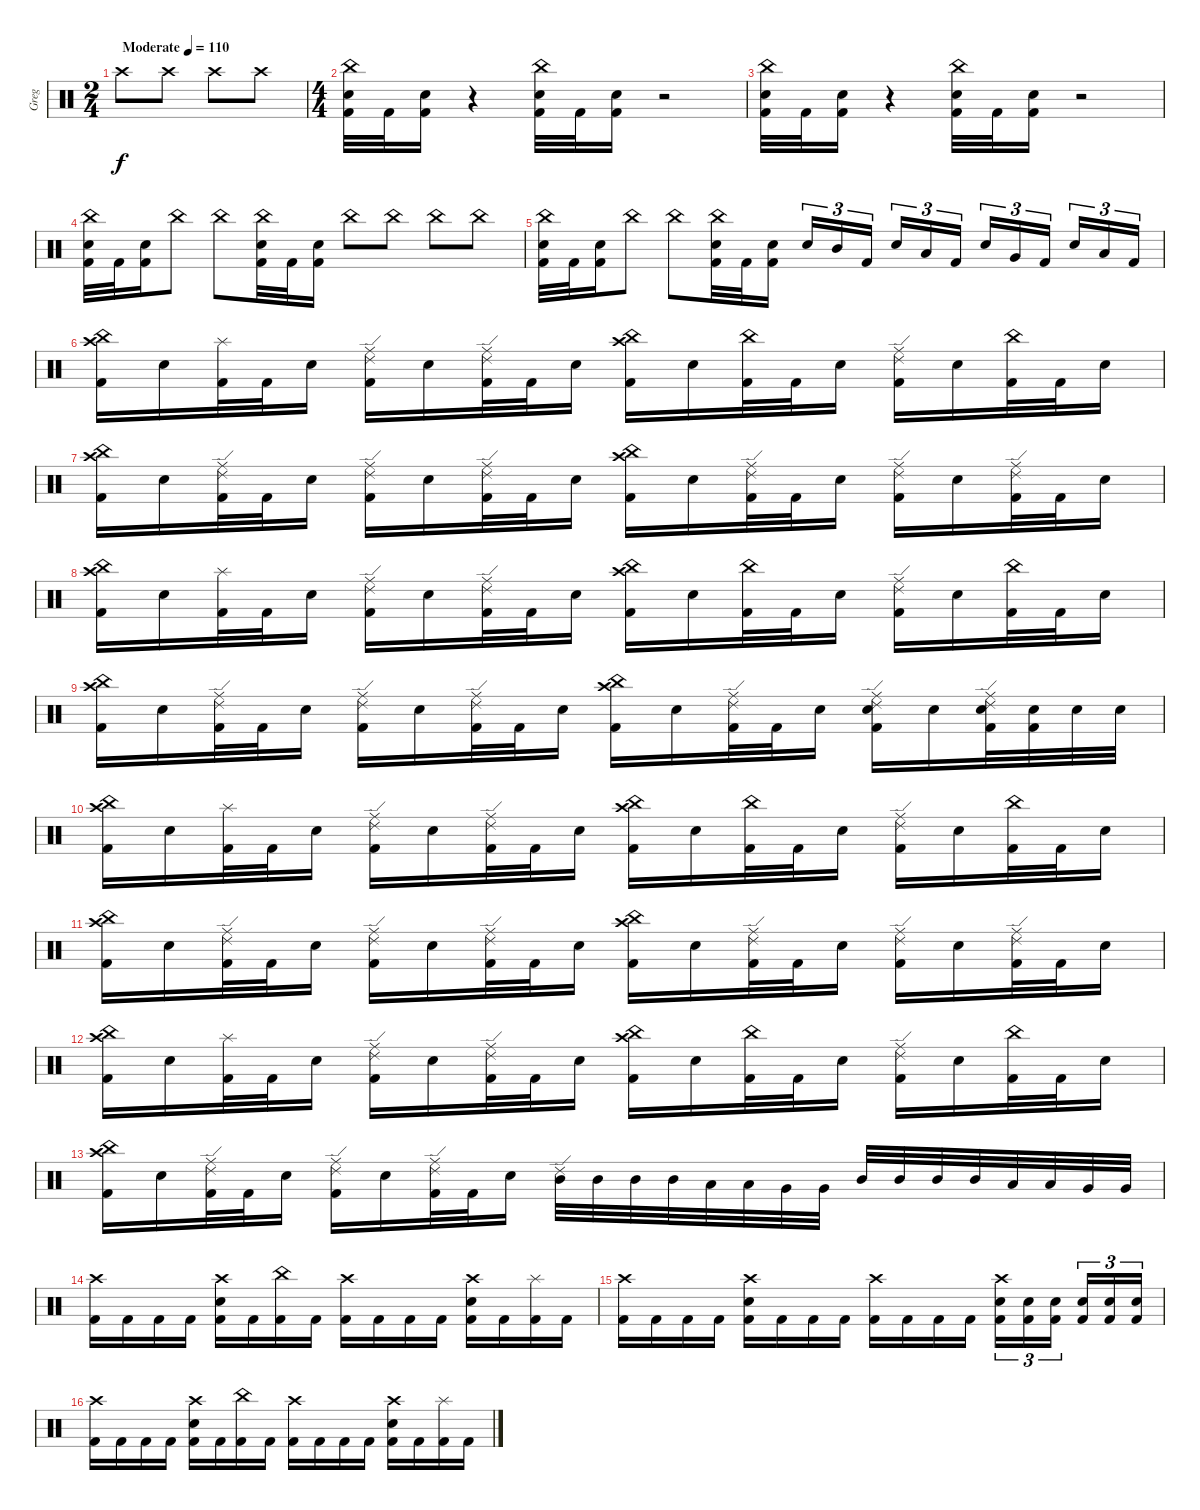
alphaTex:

\track ("Greg" "Greg") {instrument percussion}
\staff {score}
\articulation defaults
\ts (2 4)
\tempo (110 "Moderate")
\clef neutral
\ks c "Crash high (hit)".8{dy f} "Crash high (hit)".8 "Crash high (hit)".8 "Crash high (hit)".8
|
\ts (4 4)
("China (hit)" "Snare (hit) 2" "Kick (hit) 2").32 "Kick (hit) 2".32 ("Snare (hit) 2" "Kick (hit) 2").16 r.4 ("China (hit)" "Snare (hit) 2" "Kick (hit) 2").32 "Kick (hit) 2".32 ("Snare (hit) 2" "Kick (hit) 2").16 r.2 |
("China (hit)" "Snare (hit) 2" "Kick (hit) 2").32 "Kick (hit) 2".32 ("Snare (hit) 2" "Kick (hit) 2").16 r.4 ("China (hit)" "Snare (hit) 2" "Kick (hit) 2").32 "Kick (hit) 2".32 ("Snare (hit) 2" "Kick (hit) 2").16 r.2 |
("China (hit)" "Snare (hit) 2" "Kick (hit) 2").32 "Kick (hit) 2".32 ("Snare (hit) 2" "Kick (hit) 2").16 "China (hit)".8 "China (hit)".8 ("China (hit)" "Snare (hit) 2" "Kick (hit) 2").32 "Kick (hit) 2".32 ("Snare (hit) 2" "Kick (hit) 2").16 "China (hit)".8 "China (hit)".8 "China (hit)".8 "China (hit)".8 |
("China (hit)" "Snare (hit) 2" "Kick (hit) 2").32 "Kick (hit) 2".32 ("Snare (hit) 2" "Kick (hit) 2").16 "China (hit)".8 "China (hit)".8 ("China (hit)" "Snare (hit) 2" "Kick (hit) 2").32 "Kick (hit) 2".32 ("Snare (hit) 2" "Kick (hit) 2").16 "Snare (hit) 2".16{tu (3 2)} "Mid Tom (hit)".16{tu (3 2)} "Kick (hit) 2".16{tu (3 2) beam splitsecondary} "Snare (hit) 2".16{tu (3 2)} "Low Tom (hit)".16{tu (3 2)} "Kick (hit) 2".16{tu (3 2)} "Snare (hit) 2".16{tu (3 2)} "Very Low Tom (hit)".16{tu (3 2)} "Kick (hit) 2".16{tu (3 2) beam splitsecondary} "Snare (hit) 2".16{tu (3 2)} "Low Floor Tom (hit)".16{tu (3 2)} "Kick (hit) 2".16{tu (3 2)} |
("Crash high (hit)" "China (hit)" "Kick (hit) 2").16 "Snare (hit) 2".16 ("Splash (hit)" "Kick (hit) 2").32 "Kick (hit) 2".32 "Snare (hit) 2".16 ("Ride (edge) 2" "Ride (middle)" "Kick (hit) 2").16 "Snare (hit) 2".16 ("Ride (edge) 2" "Ride (middle)" "Kick (hit) 2").32 "Kick (hit) 2".32 "Snare (hit) 2".16 ("Crash high (hit)" "China (hit)" "Kick (hit) 2").16 "Snare (hit) 2".16 ("China (hit)" "Kick (hit) 2").32 "Kick (hit) 2".32 "Snare (hit) 2".16 ("Ride (edge) 2" "Ride (middle)" "Kick (hit) 2").16 "Snare (hit) 2".16 ("China (hit)" "Kick (hit) 2").32 "Kick (hit) 2".32 "Snare (hit) 2".16 |
("Crash high (hit)" "China (hit)" "Kick (hit) 2").16 "Snare (hit) 2".16 ("Ride (edge) 2" "Ride (middle)" "Kick (hit) 2").32 "Kick (hit) 2".32 "Snare (hit) 2".16 ("Ride (edge) 2" "Ride (middle)" "Kick (hit) 2").16 "Snare (hit) 2".16 ("Ride (edge) 2" "Ride (middle)" "Kick (hit) 2").32 "Kick (hit) 2".32 "Snare (hit) 2".16 ("Crash high (hit)" "China (hit)" "Kick (hit) 2").16 "Snare (hit) 2".16 ("Ride (edge) 2" "Ride (middle)" "Kick (hit) 2").32 "Kick (hit) 2".32 "Snare (hit) 2".16 ("Ride (edge) 2" "Ride (middle)" "Kick (hit) 2").16 "Snare (hit) 2".16 ("Ride (edge) 2" "Ride (middle)" "Kick (hit) 2").32 "Kick (hit) 2".32 "Snare (hit) 2".16 |
("Crash high (hit)" "China (hit)" "Kick (hit) 2").16 "Snare (hit) 2".16 ("Splash (hit)" "Kick (hit) 2").32 "Kick (hit) 2".32 "Snare (hit) 2".16 ("Ride (edge) 2" "Ride (middle)" "Kick (hit) 2").16 "Snare (hit) 2".16 ("Ride (edge) 2" "Ride (middle)" "Kick (hit) 2").32 "Kick (hit) 2".32 "Snare (hit) 2".16 ("Crash high (hit)" "China (hit)" "Kick (hit) 2").16 "Snare (hit) 2".16 ("China (hit)" "Kick (hit) 2").32 "Kick (hit) 2".32 "Snare (hit) 2".16 ("Ride (edge) 2" "Ride (middle)" "Kick (hit) 2").16 "Snare (hit) 2".16 ("China (hit)" "Kick (hit) 2").32 "Kick (hit) 2".32 "Snare (hit) 2".16 |
("Crash high (hit)" "China (hit)" "Kick (hit) 2").16 "Snare (hit) 2".16 ("Ride (edge) 2" "Ride (middle)" "Kick (hit) 2").32 "Kick (hit) 2".32 "Snare (hit) 2".16 ("Ride (edge) 2" "Ride (middle)" "Kick (hit) 2").16 "Snare (hit) 2".16 ("Ride (edge) 2" "Ride (middle)" "Kick (hit) 2").32 "Kick (hit) 2".32 "Snare (hit) 2".16 ("Crash high (hit)" "China (hit)" "Kick (hit) 2").16 "Snare (hit) 2".16 ("Ride (edge) 2" "Ride (middle)" "Kick (hit) 2").32 "Kick (hit) 2".32 "Snare (hit) 2".16 ("Ride (edge) 2" "Ride (middle)" "Snare (hit) 2" "Kick (hit) 2").16 "Snare (hit) 2".16 ("Ride (edge) 2" "Ride (middle)" "Snare (hit) 2" "Kick (hit) 2").32 ("Snare (hit) 2" "Kick (hit) 2").32 "Snare (hit) 2".32 "Snare (hit) 2".32 |
("Crash high (hit)" "China (hit)" "Kick (hit) 2").16 "Snare (hit) 2".16 ("Splash (hit)" "Kick (hit) 2").32 "Kick (hit) 2".32 "Snare (hit) 2".16 ("Ride (edge) 2" "Ride (middle)" "Kick (hit) 2").16 "Snare (hit) 2".16 ("Ride (edge) 2" "Ride (middle)" "Kick (hit) 2").32 "Kick (hit) 2".32 "Snare (hit) 2".16 ("Crash high (hit)" "China (hit)" "Kick (hit) 2").16 "Snare (hit) 2".16 ("China (hit)" "Kick (hit) 2").32 "Kick (hit) 2".32 "Snare (hit) 2".16 ("Ride (edge) 2" "Ride (middle)" "Kick (hit) 2").16 "Snare (hit) 2".16 ("China (hit)" "Kick (hit) 2").32 "Kick (hit) 2".32 "Snare (hit) 2".16 |
("Crash high (hit)" "China (hit)" "Kick (hit) 2").16 "Snare (hit) 2".16 ("Ride (edge) 2" "Ride (middle)" "Kick (hit) 2").32 "Kick (hit) 2".32 "Snare (hit) 2".16 ("Ride (edge) 2" "Ride (middle)" "Kick (hit) 2").16 "Snare (hit) 2".16 ("Ride (edge) 2" "Ride (middle)" "Kick (hit) 2").32 "Kick (hit) 2".32 "Snare (hit) 2".16 ("Crash high (hit)" "China (hit)" "Kick (hit) 2").16 "Snare (hit) 2".16 ("Ride (edge) 2" "Ride (middle)" "Kick (hit) 2").32 "Kick (hit) 2".32 "Snare (hit) 2".16 ("Ride (edge) 2" "Ride (middle)" "Kick (hit) 2").16 "Snare (hit) 2".16 ("Ride (edge) 2" "Ride (middle)" "Kick (hit) 2").32 "Kick (hit) 2".32 "Snare (hit) 2".16 |
("Crash high (hit)" "China (hit)" "Kick (hit) 2").16 "Snare (hit) 2".16 ("Splash (hit)" "Kick (hit) 2").32 "Kick (hit) 2".32 "Snare (hit) 2".16 ("Ride (edge) 2" "Ride (middle)" "Kick (hit) 2").16 "Snare (hit) 2".16 ("Ride (edge) 2" "Ride (middle)" "Kick (hit) 2").32 "Kick (hit) 2".32 "Snare (hit) 2".16 ("Crash high (hit)" "China (hit)" "Kick (hit) 2").16 "Snare (hit) 2".16 ("China (hit)" "Kick (hit) 2").32 "Kick (hit) 2".32 "Snare (hit) 2".16 ("Ride (edge) 2" "Ride (middle)" "Kick (hit) 2").16 "Snare (hit) 2".16 ("China (hit)" "Kick (hit) 2").32 "Kick (hit) 2".32 "Snare (hit) 2".16 |
("Crash high (hit)" "China (hit)" "Kick (hit) 2").16 "Snare (hit) 2".16 ("Ride (edge) 2" "Ride (middle)" "Kick (hit) 2").32 "Kick (hit) 2".32 "Snare (hit) 2".16 ("Ride (edge) 2" "Ride (middle)" "Kick (hit) 2").16 "Snare (hit) 2".16 ("Ride (edge) 2" "Ride (middle)" "Kick (hit) 2").32 "Kick (hit) 2".32 "Snare (hit) 2".16 ("Ride (edge) 2" "Mid Tom (hit)").32 "Mid Tom (hit)".32 "Mid Tom (hit)".32 "Mid Tom (hit)".32 "Low Tom (hit)".32 "Low Tom (hit)".32 "Very Low Tom (hit)".32 "Very Low Tom (hit)".32 "Mid Tom (hit)".32 "Mid Tom (hit)".32 "Mid Tom (hit)".32 "Mid Tom (hit)".32 "Low Tom (hit)".32 "Low Tom (hit)".32 "Very Low Tom (hit)".32 "Very Low Tom (hit)".32 |
("Crash high (hit)" "Kick (hit) 2").16 "Kick (hit) 2".16 "Kick (hit) 2".16 "Kick (hit) 2".16 ("Crash high (hit)" "Snare (hit) 2" "Kick (hit) 2").16 "Kick (hit) 2".16 ("China (hit)" "Kick (hit) 2").16 "Kick (hit) 2".16 ("Crash high (hit)" "Kick (hit) 2").16 "Kick (hit) 2".16 "Kick (hit) 2".16 "Kick (hit) 2".16 ("Crash high (hit)" "Snare (hit) 2" "Kick (hit) 2").16 "Kick (hit) 2".16 ("Splash (hit)" "Kick (hit) 2").16 "Kick (hit) 2".16 |
("Crash high (hit)" "Kick (hit) 2").16 "Kick (hit) 2".16 "Kick (hit) 2".16 "Kick (hit) 2".16 ("Crash high (hit)" "Snare (hit) 2" "Kick (hit) 2").16 "Kick (hit) 2".16 "Kick (hit) 2".16 "Kick (hit) 2".16 ("Crash high (hit)" "Kick (hit) 2").16 "Kick (hit) 2".16 "Kick (hit) 2".16 "Kick (hit) 2".16 ("Crash high (hit)" "Snare (hit) 2" "Kick (hit) 2").16{tu (3 2)} ("Snare (hit) 2" "Kick (hit) 2").16{tu (3 2)} ("Snare (hit) 2" "Kick (hit) 2").16{tu (3 2) beam splitsecondary} ("Snare (hit) 2" "Kick (hit) 2").16{tu (3 2)} ("Snare (hit) 2" "Kick (hit) 2").16{tu (3 2)} ("Snare (hit) 2" "Kick (hit) 2").16{tu (3 2)} |
("Crash high (hit)" "Kick (hit) 2").16 "Kick (hit) 2".16 "Kick (hit) 2".16 "Kick (hit) 2".16 ("Crash high (hit)" "Snare (hit) 2" "Kick (hit) 2").16 "Kick (hit) 2".16 ("China (hit)" "Kick (hit) 2").16 "Kick (hit) 2".16 ("Crash high (hit)" "Kick (hit) 2").16 "Kick (hit) 2".16 "Kick (hit) 2".16 "Kick (hit) 2".16 ("Crash high (hit)" "Snare (hit) 2" "Kick (hit) 2").16 "Kick (hit) 2".16 ("Splash (hit)" "Kick (hit) 2").16 "Kick (hit) 2".16
